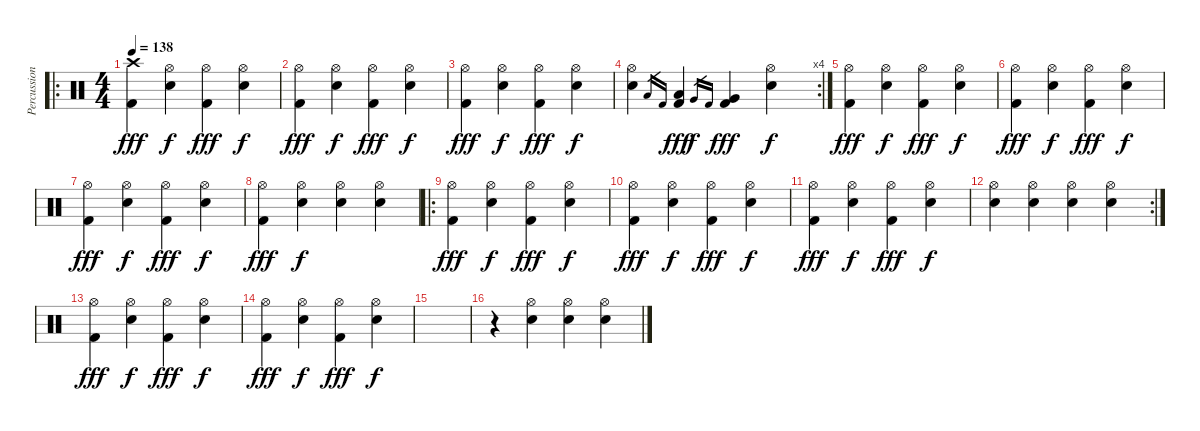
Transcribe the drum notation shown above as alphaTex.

\track ("Percussion" "Percussion") {instrument percussion}
\staff {score}
\articulation defaults
\ro
\ts (4 4)
\tempo 138
\clef neutral
\ks c
("Crash high (hit)" "Kick (hit) 2").4{dy fff} ("Hi-Hat (open)" "Snare (hit) 2").4{dy f} ("Hi-Hat (open)" "Kick (hit) 2").4{dy fff} ("Hi-Hat (open)" "Snare (hit) 2").4{dy f} |
("Hi-Hat (open)" "Kick (hit) 2").4{dy fff} ("Hi-Hat (open)" "Snare (hit) 2").4{dy f} ("Hi-Hat (open)" "Kick (hit) 2").4{dy fff} ("Hi-Hat (open)" "Snare (hit) 2").4{dy f} |
("Hi-Hat (open)" "Kick (hit) 2").4{dy fff} ("Hi-Hat (open)" "Snare (hit) 2").4{dy f} ("Hi-Hat (open)" "Kick (hit) 2").4{dy fff} ("Hi-Hat (open)" "Snare (hit) 2").4{dy f} |
\rc 4
("Hi-Hat (open)" "Snare (hit) 2").4 "Low Tom (hit)".16{gr} "Kick (hit) 2".16{gr} ("Low Tom (hit)" "Kick (hit) 2").4{dy fff} "Very Low Tom (hit)".16{gr dy f} "Kick (hit) 2".16{gr} ("Very Low Tom (hit)" "Kick (hit) 2").4{dy fff} ("Hi-Hat (open)" "Snare (hit) 2").4{dy f} |
("Hi-Hat (open)" "Kick (hit) 2").4{dy fff} ("Hi-Hat (open)" "Snare (hit) 2").4{dy f} ("Hi-Hat (open)" "Kick (hit) 2").4{dy fff} ("Hi-Hat (open)" "Snare (hit) 2").4{dy f} |
("Hi-Hat (open)" "Kick (hit) 2").4{dy fff} ("Hi-Hat (open)" "Snare (hit) 2").4{dy f} ("Hi-Hat (open)" "Kick (hit) 2").4{dy fff} ("Hi-Hat (open)" "Snare (hit) 2").4{dy f} |
("Hi-Hat (open)" "Kick (hit) 2").4{dy fff} ("Hi-Hat (open)" "Snare (hit) 2").4{dy f} ("Hi-Hat (open)" "Kick (hit) 2").4{dy fff} ("Hi-Hat (open)" "Snare (hit) 2").4{dy f} |
("Hi-Hat (open)" "Kick (hit) 2").4{dy fff} ("Hi-Hat (open)" "Snare (hit) 2").4{dy f} ("Hi-Hat (open)" "Snare (hit) 2").4 ("Hi-Hat (open)" "Snare (hit) 2").4 |
\ro
("Hi-Hat (open)" "Kick (hit) 2").4{dy fff} ("Hi-Hat (open)" "Snare (hit) 2").4{dy f} ("Hi-Hat (open)" "Kick (hit) 2").4{dy fff} ("Hi-Hat (open)" "Snare (hit) 2").4{dy f} |
("Hi-Hat (open)" "Kick (hit) 2").4{dy fff} ("Hi-Hat (open)" "Snare (hit) 2").4{dy f} ("Hi-Hat (open)" "Kick (hit) 2").4{dy fff} ("Hi-Hat (open)" "Snare (hit) 2").4{dy f} |
("Hi-Hat (open)" "Kick (hit) 2").4{dy fff} ("Hi-Hat (open)" "Snare (hit) 2").4{dy f} ("Hi-Hat (open)" "Kick (hit) 2").4{dy fff} ("Hi-Hat (open)" "Snare (hit) 2").4{dy f} |
\rc 2
("Hi-Hat (open)" "Snare (hit) 2").4 ("Hi-Hat (open)" "Snare (hit) 2").4 ("Hi-Hat (open)" "Snare (hit) 2").4 ("Hi-Hat (open)" "Snare (hit) 2").4 |
("Hi-Hat (open)" "Kick (hit) 2").4{dy fff} ("Hi-Hat (open)" "Snare (hit) 2").4{dy f} ("Hi-Hat (open)" "Kick (hit) 2").4{dy fff} ("Hi-Hat (open)" "Snare (hit) 2").4{dy f} |
("Hi-Hat (open)" "Kick (hit) 2").4{dy fff} ("Hi-Hat (open)" "Snare (hit) 2").4{dy f} ("Hi-Hat (open)" "Kick (hit) 2").4{dy fff} ("Hi-Hat (open)" "Snare (hit) 2").4{dy f} |
|
r.4 ("Hi-Hat (open)" "Snare (hit) 2").4 ("Hi-Hat (open)" "Snare (hit) 2").4 ("Hi-Hat (open)" "Snare (hit) 2").4
